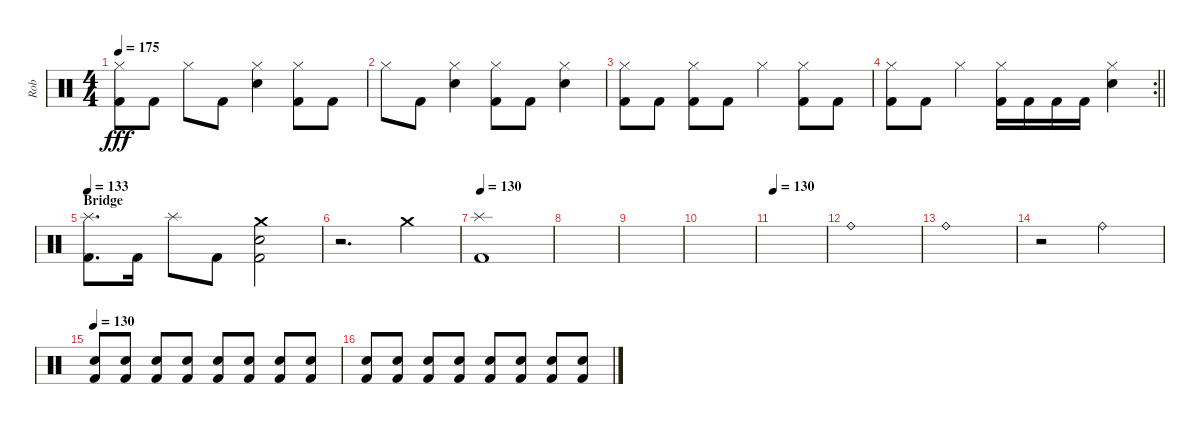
\track ("Rob" "Rob") {instrument percussion}
\staff {score}
\articulation defaults
\ts (4 4)
\tempo 175
\clef neutral
\ks c
("Hi-Hat (closed)" "Kick (hit) 2").8{dy fff} "Kick (hit) 2".8 "Hi-Hat (closed)".8 "Kick (hit) 2".8 ("Hi-Hat (closed)" "Electric Snare (hit)").4 ("Hi-Hat (closed)" "Kick (hit) 2").8 "Kick (hit) 2".8 |
"Hi-Hat (closed)".8 "Kick (hit) 2".8 ("Hi-Hat (closed)" "Electric Snare (hit)").4 ("Hi-Hat (closed)" "Kick (hit) 2").8 "Kick (hit) 2".8 ("Hi-Hat (closed)" "Electric Snare (hit)").4 |
("Hi-Hat (closed)" "Kick (hit) 2").8 "Kick (hit) 2".8 ("Hi-Hat (closed)" "Kick (hit) 2").8 "Kick (hit) 2".8 "Hi-Hat (closed)".4 ("Hi-Hat (closed)" "Kick (hit) 2").8 "Kick (hit) 2".8 |
\rc 2
\barLineRight lightlight
("Hi-Hat (closed)" "Kick (hit) 2").8 "Kick (hit) 2".8 "Hi-Hat (closed)".4 ("Hi-Hat (closed)" "Kick (hit) 2").16 "Kick (hit) 2".16 "Kick (hit) 2".16 "Kick (hit) 2".16 ("Hi-Hat (closed)" "Electric Snare (hit)").4 |
\section ("" "Bridge")
\tempo 133
("Splash (hit)" "Kick (hit) 2").8{d} "Kick (hit) 2".16 "Splash (hit)".8 "Kick (hit) 2".8 ("Crash medium (hit)" "Electric Snare (hit)" "Kick (hit) 2").2 |
r.2{d} "Crash medium (hit)".4 |
\tempo 130
("Splash (hit)" "Kick (hit) 2").1 |
|
|
|
\tempo 130
|
"Ride (bell)".1 |
"Ride (bell)".1 |
r.2 "Ride (bell)".2 |
\tempo 130
("Electric Snare (hit)" "Kick (hit) 2").8{volume 9} ("Electric Snare (hit)" "Kick (hit) 2").8 ("Electric Snare (hit)" "Kick (hit) 2").8 ("Electric Snare (hit)" "Kick (hit) 2").8 ("Electric Snare (hit)" "Kick (hit) 2").8 ("Electric Snare (hit)" "Kick (hit) 2").8 ("Electric Snare (hit)" "Kick (hit) 2").8 ("Electric Snare (hit)" "Kick (hit) 2").8 |
("Electric Snare (hit)" "Kick (hit) 2").8 ("Electric Snare (hit)" "Kick (hit) 2").8 ("Electric Snare (hit)" "Kick (hit) 2").8 ("Electric Snare (hit)" "Kick (hit) 2").8 ("Electric Snare (hit)" "Kick (hit) 2").8 ("Electric Snare (hit)" "Kick (hit) 2").8 ("Electric Snare (hit)" "Kick (hit) 2").8 ("Electric Snare (hit)" "Kick (hit) 2").8
